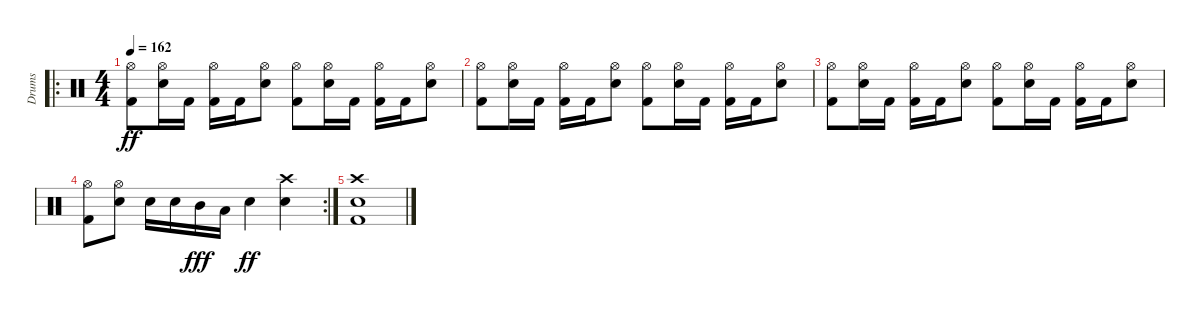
\track ("Drums" "Drums") {instrument percussion}
\staff {score}
\articulation defaults
\ro
\ts (4 4)
\tempo 162
\clef neutral
\ks c
("Hi-Hat (open)" "Kick (hit) 2").8{dy ff} ("Hi-Hat (open)" "Electric Snare (hit)").16 "Kick (hit) 2".16 ("Hi-Hat (open)" "Kick (hit) 2").16 "Kick (hit) 2".16 ("Hi-Hat (open)" "Electric Snare (hit)").8 ("Hi-Hat (open)" "Kick (hit) 2").8 ("Hi-Hat (open)" "Electric Snare (hit)").16 "Kick (hit) 2".16 ("Hi-Hat (open)" "Kick (hit) 2").16 "Kick (hit) 2".16 ("Hi-Hat (open)" "Electric Snare (hit)").8 |
("Hi-Hat (open)" "Kick (hit) 2").8 ("Hi-Hat (open)" "Electric Snare (hit)").16 "Kick (hit) 2".16 ("Hi-Hat (open)" "Kick (hit) 2").16 "Kick (hit) 2".16 ("Hi-Hat (open)" "Electric Snare (hit)").8 ("Hi-Hat (open)" "Kick (hit) 2").8 ("Hi-Hat (open)" "Electric Snare (hit)").16 "Kick (hit) 2".16 ("Hi-Hat (open)" "Kick (hit) 2").16 "Kick (hit) 2".16 ("Hi-Hat (open)" "Electric Snare (hit)").8 |
("Hi-Hat (open)" "Kick (hit) 2").8 ("Hi-Hat (open)" "Electric Snare (hit)").16 "Kick (hit) 2".16 ("Hi-Hat (open)" "Kick (hit) 2").16 "Kick (hit) 2".16 ("Hi-Hat (open)" "Electric Snare (hit)").8 ("Hi-Hat (open)" "Kick (hit) 2").8 ("Hi-Hat (open)" "Electric Snare (hit)").16 "Kick (hit) 2".16 ("Hi-Hat (open)" "Kick (hit) 2").16 "Kick (hit) 2".16 ("Hi-Hat (open)" "Electric Snare (hit)").8 |
\rc 2
("Hi-Hat (open)" "Kick (hit) 2").8 ("Hi-Hat (open)" "Electric Snare (hit)").8 "Electric Snare (hit)".16 "Electric Snare (hit)".16 "Mid Tom (hit)".16{dy fff} "Low Tom (hit)".16 "Electric Snare (hit)".4{dy ff} ("Crash high (hit)" "Electric Snare (hit)").4 |
("Crash high (hit)" "Electric Snare (hit)" "Kick (hit) 2").1
